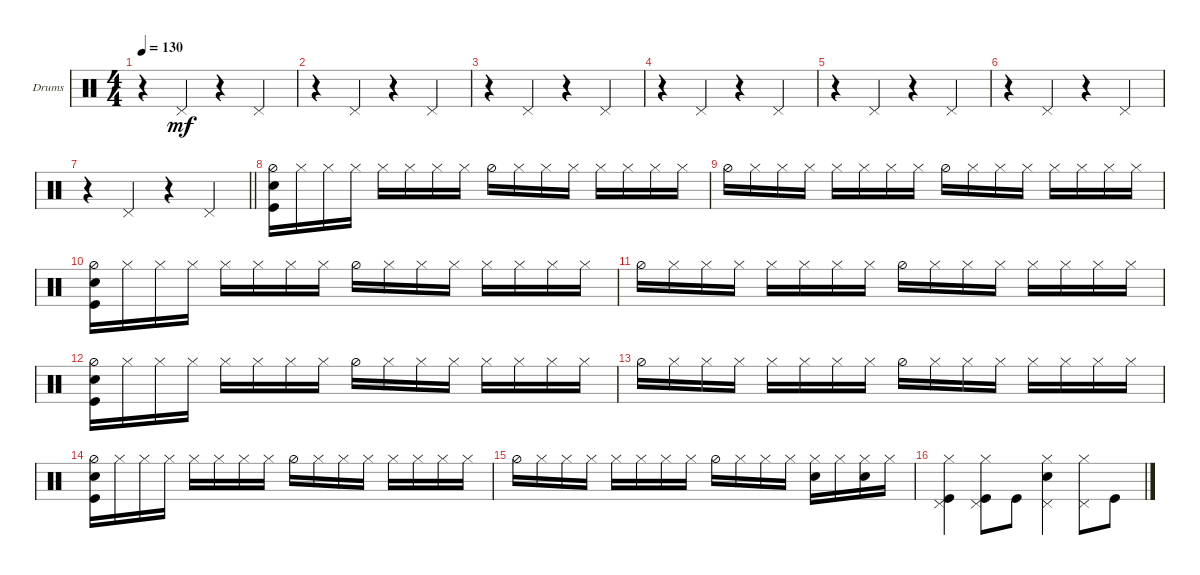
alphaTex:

\defaultSystemsLayout 4
\bracketExtendMode groupsimilarinstruments
\firstSystemTrackNameOrientation horizontal
\otherSystemsTrackNameOrientation horizontal
\chordDiagramsInScore
\track ("Drumkit" "Drums") {instrument percussion}
\staff {score}
\articulation defaults
\ts (4 4)
\tempo 130
\clef neutral
\ks c
r.4{dy mf} "Pedal Hi-Hat (hit)".4 r.4 "Pedal Hi-Hat (hit)".4 |
r.4 "Pedal Hi-Hat (hit)".4 r.4 "Pedal Hi-Hat (hit)".4 |
r.4 "Pedal Hi-Hat (hit)".4 r.4 "Pedal Hi-Hat (hit)".4 |
r.4 "Pedal Hi-Hat (hit)".4 r.4 "Pedal Hi-Hat (hit)".4 |
r.4 "Pedal Hi-Hat (hit)".4 r.4 "Pedal Hi-Hat (hit)".4 |
r.4 "Pedal Hi-Hat (hit)".4 r.4 "Pedal Hi-Hat (hit)".4 |
\barLineRight lightlight
r.4 "Pedal Hi-Hat (hit)".4 r.4 "Pedal Hi-Hat (hit)".4 |
("Hi-Hat (half)" "Snare (hit) 2" "Kick (hit)").16 "Hi-Hat (closed)".16 "Hi-Hat (closed)".16 "Hi-Hat (closed)".16 "Hi-Hat (closed)".16 "Hi-Hat (closed)".16 "Hi-Hat (closed)".16 "Hi-Hat (closed)".16 "Hi-Hat (half)".16 "Hi-Hat (closed)".16 "Hi-Hat (closed)".16 "Hi-Hat (closed)".16 "Hi-Hat (closed)".16 "Hi-Hat (closed)".16 "Hi-Hat (closed)".16 "Hi-Hat (closed)".16 |
"Hi-Hat (half)".16 "Hi-Hat (closed)".16 "Hi-Hat (closed)".16 "Hi-Hat (closed)".16 "Hi-Hat (closed)".16 "Hi-Hat (closed)".16 "Hi-Hat (closed)".16 "Hi-Hat (closed)".16 "Hi-Hat (half)".16 "Hi-Hat (closed)".16 "Hi-Hat (closed)".16 "Hi-Hat (closed)".16 "Hi-Hat (closed)".16 "Hi-Hat (closed)".16 "Hi-Hat (closed)".16 "Hi-Hat (closed)".16 |
("Hi-Hat (half)" "Snare (hit) 2" "Kick (hit)").16 "Hi-Hat (closed)".16 "Hi-Hat (closed)".16 "Hi-Hat (closed)".16 "Hi-Hat (closed)".16 "Hi-Hat (closed)".16 "Hi-Hat (closed)".16 "Hi-Hat (closed)".16 "Hi-Hat (half)".16 "Hi-Hat (closed)".16 "Hi-Hat (closed)".16 "Hi-Hat (closed)".16 "Hi-Hat (closed)".16 "Hi-Hat (closed)".16 "Hi-Hat (closed)".16 "Hi-Hat (closed)".16 |
"Hi-Hat (half)".16 "Hi-Hat (closed)".16 "Hi-Hat (closed)".16 "Hi-Hat (closed)".16 "Hi-Hat (closed)".16 "Hi-Hat (closed)".16 "Hi-Hat (closed)".16 "Hi-Hat (closed)".16 "Hi-Hat (half)".16 "Hi-Hat (closed)".16 "Hi-Hat (closed)".16 "Hi-Hat (closed)".16 "Hi-Hat (closed)".16 "Hi-Hat (closed)".16 "Hi-Hat (closed)".16 "Hi-Hat (closed)".16 |
("Hi-Hat (half)" "Snare (hit) 2" "Kick (hit)").16 "Hi-Hat (closed)".16 "Hi-Hat (closed)".16 "Hi-Hat (closed)".16 "Hi-Hat (closed)".16 "Hi-Hat (closed)".16 "Hi-Hat (closed)".16 "Hi-Hat (closed)".16 "Hi-Hat (half)".16 "Hi-Hat (closed)".16 "Hi-Hat (closed)".16 "Hi-Hat (closed)".16 "Hi-Hat (closed)".16 "Hi-Hat (closed)".16 "Hi-Hat (closed)".16 "Hi-Hat (closed)".16 |
"Hi-Hat (half)".16 "Hi-Hat (closed)".16 "Hi-Hat (closed)".16 "Hi-Hat (closed)".16 "Hi-Hat (closed)".16 "Hi-Hat (closed)".16 "Hi-Hat (closed)".16 "Hi-Hat (closed)".16 "Hi-Hat (half)".16 "Hi-Hat (closed)".16 "Hi-Hat (closed)".16 "Hi-Hat (closed)".16 "Hi-Hat (closed)".16 "Hi-Hat (closed)".16 "Hi-Hat (closed)".16 "Hi-Hat (closed)".16 |
("Hi-Hat (half)" "Snare (hit) 2" "Kick (hit)").16 "Hi-Hat (closed)".16 "Hi-Hat (closed)".16 "Hi-Hat (closed)".16 "Hi-Hat (closed)".16 "Hi-Hat (closed)".16 "Hi-Hat (closed)".16 "Hi-Hat (closed)".16 "Hi-Hat (half)".16 "Hi-Hat (closed)".16 "Hi-Hat (closed)".16 "Hi-Hat (closed)".16 "Hi-Hat (closed)".16 "Hi-Hat (closed)".16 "Hi-Hat (closed)".16 "Hi-Hat (closed)".16 |
"Hi-Hat (half)".16 "Hi-Hat (closed)".16 "Hi-Hat (closed)".16 "Hi-Hat (closed)".16 "Hi-Hat (closed)".16 "Hi-Hat (closed)".16 "Hi-Hat (closed)".16 "Hi-Hat (closed)".16 "Hi-Hat (half)".16 "Hi-Hat (closed)".16 "Hi-Hat (closed)".16 "Hi-Hat (closed)".16 ("Hi-Hat (closed)" "Snare (hit) 2").16 "Hi-Hat (closed)".16 ("Hi-Hat (closed)" "Snare (hit) 2").16 "Hi-Hat (closed)".16 |
("Kick (hit)" "Hi-Hat (closed)" "Pedal Hi-Hat (hit)").4 ("Kick (hit)" "Hi-Hat (closed)" "Pedal Hi-Hat (hit)").8 "Kick (hit)".8 ("Snare (hit) 2" "Hi-Hat (closed)" "Pedal Hi-Hat (hit)").4 ("Pedal Hi-Hat (hit)" "Hi-Hat (closed)").8 "Kick (hit)".8
